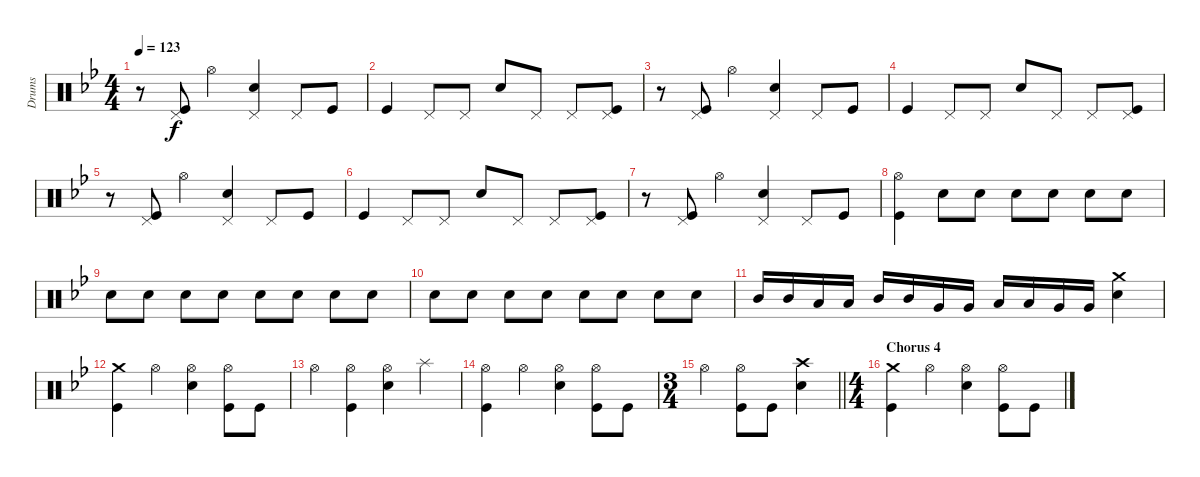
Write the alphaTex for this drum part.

\track ("Drums" "Drums") {instrument percussion}
\staff {score}
\articulation defaults
\ts (4 4)
\tempo 123
\clef neutral
\ks bb
r.8{dy f} ("Pedal Hi-Hat (hit)" "Kick (hit)").8 "Hi-Hat (open)".4 ("Pedal Hi-Hat (hit)" "Snare (hit) 2").4 "Pedal Hi-Hat (hit)".8 "Kick (hit)".8 |
"Kick (hit)".4 "Pedal Hi-Hat (hit)".8 "Pedal Hi-Hat (hit)".8 "Snare (hit) 2".8 "Pedal Hi-Hat (hit)".8 "Pedal Hi-Hat (hit)".8 ("Pedal Hi-Hat (hit)" "Kick (hit)").8 |
r.8 ("Pedal Hi-Hat (hit)" "Kick (hit)").8 "Hi-Hat (open)".4 ("Pedal Hi-Hat (hit)" "Snare (hit) 2").4 "Pedal Hi-Hat (hit)".8 "Kick (hit)".8 |
"Kick (hit)".4 "Pedal Hi-Hat (hit)".8 "Pedal Hi-Hat (hit)".8 "Snare (hit) 2".8 "Pedal Hi-Hat (hit)".8 "Pedal Hi-Hat (hit)".8 ("Pedal Hi-Hat (hit)" "Kick (hit)").8 |
r.8 ("Pedal Hi-Hat (hit)" "Kick (hit)").8 "Hi-Hat (open)".4 ("Pedal Hi-Hat (hit)" "Snare (hit) 2").4 "Pedal Hi-Hat (hit)".8 "Kick (hit)".8 |
"Kick (hit)".4 "Pedal Hi-Hat (hit)".8 "Pedal Hi-Hat (hit)".8 "Snare (hit) 2".8 "Pedal Hi-Hat (hit)".8 "Pedal Hi-Hat (hit)".8 ("Pedal Hi-Hat (hit)" "Kick (hit)").8 |
r.8 ("Pedal Hi-Hat (hit)" "Kick (hit)").8 "Hi-Hat (open)".4 ("Pedal Hi-Hat (hit)" "Snare (hit) 2").4 "Pedal Hi-Hat (hit)".8 "Kick (hit)".8 |
("Hi-Hat (open)" "Kick (hit)").4 "Snare (hit) 2".8 "Snare (hit) 2".8 "Snare (hit) 2".8 "Snare (hit) 2".8 "Snare (hit) 2".8 "Snare (hit) 2".8 |
"Snare (hit) 2".8 "Snare (hit) 2".8 "Snare (hit) 2".8 "Snare (hit) 2".8 "Snare (hit) 2".8 "Snare (hit) 2".8 "Snare (hit) 2".8 "Snare (hit) 2".8 |
"Snare (hit) 2".8 "Snare (hit) 2".8 "Snare (hit) 2".8 "Snare (hit) 2".8 "Snare (hit) 2".8 "Snare (hit) 2".8 "Snare (hit) 2".8 "Snare (hit) 2".8 |
"Mid Tom (hit)".16 "Mid Tom (hit)".16 "Low Tom (hit)".16 "Low Tom (hit)".16 "Mid Tom (hit)".16 "Mid Tom (hit)".16 "Very Low Tom (hit)".16 "Very Low Tom (hit)".16 "Low Tom (hit)".16 "Low Tom (hit)".16 "Very Low Tom (hit)".16 "Very Low Tom (hit)".16 ("Crash medium (hit)" "Snare (hit) 2").4 |
("Crash medium (hit)" "Kick (hit)").4 "Hi-Hat (open)".4 ("Hi-Hat (open)" "Snare (hit) 2").4 ("Hi-Hat (open)" "Kick (hit)").8 "Kick (hit)".8 |
"Hi-Hat (open)".4 ("Hi-Hat (open)" "Kick (hit)").4 ("Hi-Hat (open)" "Snare (hit) 2").4 "Splash (hit)".4 |
("Hi-Hat (open)" "Kick (hit)").4 "Hi-Hat (open)".4 ("Hi-Hat (open)" "Snare (hit) 2").4 ("Hi-Hat (open)" "Kick (hit)").8 "Kick (hit)".8 |
\ts (3 4)
\barLineRight lightlight "Hi-Hat (open)".4
("Hi-Hat (open)" "Kick (hit)").8 "Kick (hit)".8 ("Crash high (hit)" "Snare (hit) 2").4 |
\ts (4 4)
\section ("" "Chorus 4")
("Crash medium (hit)" "Kick (hit)").4 "Hi-Hat (open)".4 ("Hi-Hat (open)" "Snare (hit) 2").4 ("Hi-Hat (open)" "Kick (hit)").8 "Kick (hit)".8
